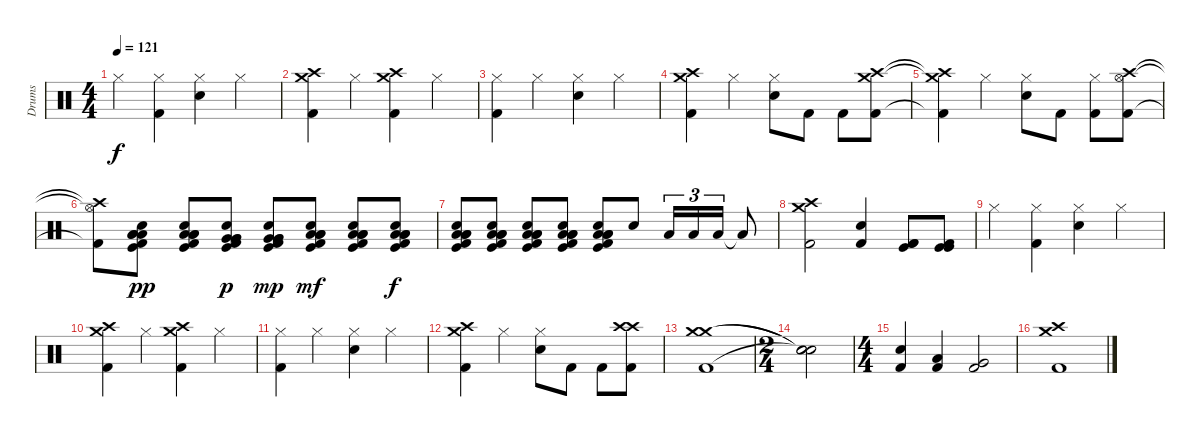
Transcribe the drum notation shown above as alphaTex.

\track ("Drums" "Drums") {instrument percussion}
\staff {score}
\articulation defaults
\ts (4 4)
\tempo 121
\clef neutral
\ks c "Hi-Hat (closed)".4{dy f}
("Hi-Hat (closed)" "Kick (hit) 2").4 ("Hi-Hat (closed)" "Snare (hit) 2").4 "Hi-Hat (closed)".4 |
("Crash high (hit)" "Crash medium (hit)" "Kick (hit) 2").4 "Hi-Hat (closed)".4 ("Crash high (hit)" "Crash medium (hit)" "Kick (hit) 2").4 "Hi-Hat (closed)".4 |
("Hi-Hat (closed)" "Kick (hit) 2").4 "Hi-Hat (closed)".4 ("Hi-Hat (closed)" "Snare (hit) 2").4 "Hi-Hat (closed)".4 |
("Crash high (hit)" "Crash medium (hit)" "Kick (hit) 2").4 "Hi-Hat (closed)".4 ("Hi-Hat (closed)" "Snare (hit) 2").8 "Kick (hit) 2".8 "Kick (hit) 2".8 ("Crash high (hit)" "Crash medium (hit)" "Kick (hit) 2").8 |
("Crash high (hit)"{t} "Crash medium (hit)"{t} "Kick (hit) 2"{t}).4 "Hi-Hat (closed)".4 ("Hi-Hat (closed)" "Snare (hit) 2").8 "Kick (hit) 2".8 ("Hi-Hat (closed)" "Kick (hit) 2").8 ("Crash high (hit)" "Hi-Hat (open)" "Kick (hit) 2").8 |
("Crash high (hit)"{t} "Hi-Hat (open)"{t} "Kick (hit) 2"{t}).8 ("Low Floor Tom (hit)" "Low Floor Tom (hit)" "Low Floor Tom (hit)" "Kick (hit) 2" "Kick (hit)" "Electric Snare (hit)").8{dy pp} ("Low Floor Tom (hit)" "Low Floor Tom (hit)" "Low Floor Tom (hit)" "Kick (hit) 2" "Kick (hit)" "Electric Snare (hit)").8 ("Very Low Tom (hit)" "Very Low Tom (hit)" "Very Low Tom (hit)" "Kick (hit) 2" "Kick (hit)" "Electric Snare (hit)").8{dy p} ("Very Low Tom (hit)" "Very Low Tom (hit)" "Very Low Tom (hit)" "Kick (hit) 2" "Kick (hit)" "Snare (hit) 2").8{dy mp} ("Low Tom (hit)" "Low Tom (hit)" "Low Tom (hit)" "Kick (hit) 2" "Kick (hit)" "Snare (hit) 2").8{dy mf} ("Low Tom (hit)" "Low Tom (hit)" "Low Tom (hit)" "Kick (hit) 2" "Kick (hit)" "Snare (hit) 2").8 ("Low Tom (hit)" "Low Tom (hit)" "Low Tom (hit)" "Kick (hit) 2" "Kick (hit)" "Snare (hit) 2").8{dy f} |
("Low Tom (hit)" "Low Tom (hit)" "Low Tom (hit)" "Kick (hit) 2" "Kick (hit)" "Snare (hit) 2").8 ("Low Tom (hit)" "Low Tom (hit)" "Low Tom (hit)" "Kick (hit) 2" "Kick (hit)" "Snare (hit) 2").8 ("Low Tom (hit)" "Low Tom (hit)" "Low Tom (hit)" "Kick (hit) 2" "Kick (hit)" "Snare (hit) 2").8 ("Low Tom (hit)" "Low Tom (hit)" "Low Tom (hit)" "Kick (hit) 2" "Kick (hit)" "Snare (hit) 2").8 ("Low Tom (hit)" "Low Tom (hit)" "Low Tom (hit)" "Kick (hit) 2" "Kick (hit)" "Snare (hit) 2").8 "Snare (hit) 2".8 "Low Tom (hit)".16{tu (3 2)} "Low Tom (hit)".16{tu (3 2)} "Low Tom (hit)".16{tu (3 2)} "Low Tom (hit)"{t}.8 |
("Crash high (hit)" "Crash medium (hit)" "Kick (hit) 2").2 ("Snare (hit) 2" "Kick (hit) 2").4 ("Kick (hit)" "Kick (hit) 2" "Kick (hit) 2").8 ("Kick (hit)" "Kick (hit) 2" "Kick (hit)").8 |
"Hi-Hat (closed)".4 ("Hi-Hat (closed)" "Kick (hit) 2").4 ("Hi-Hat (closed)" "Snare (hit) 2").4 "Hi-Hat (closed)".4 |
("Crash high (hit)" "Crash medium (hit)" "Kick (hit) 2").4 "Hi-Hat (closed)".4 ("Crash high (hit)" "Crash medium (hit)" "Kick (hit) 2").4 "Hi-Hat (closed)".4 |
("Hi-Hat (closed)" "Kick (hit) 2").4 "Hi-Hat (closed)".4 ("Hi-Hat (closed)" "Snare (hit) 2").4 "Hi-Hat (closed)".4 |
("Crash high (hit)" "Crash medium (hit)" "Kick (hit) 2").4 "Hi-Hat (closed)".4 ("Hi-Hat (closed)" "Snare (hit) 2").8 "Kick (hit) 2".8 "Kick (hit) 2".8 ("Crash high (hit)" "Crash high (hit)" "Kick (hit) 2").8 |
("Crash medium (hit)" "Crash medium (hit)" "Kick (hit) 2").1 |
\ts (2 4)
("Snare (hit)"{t} "Snare (hit)"{t} "Snare (hit)"{t}).2 |
\ts (4 4)
("Snare (hit) 2" "Kick (hit) 2").4 ("Low Tom (hit)" "Kick (hit) 2").4 ("Very Low Tom (hit)" "Kick (hit) 2").2 |
("Crash high (hit)" "Crash medium (hit)" "Kick (hit) 2").1
